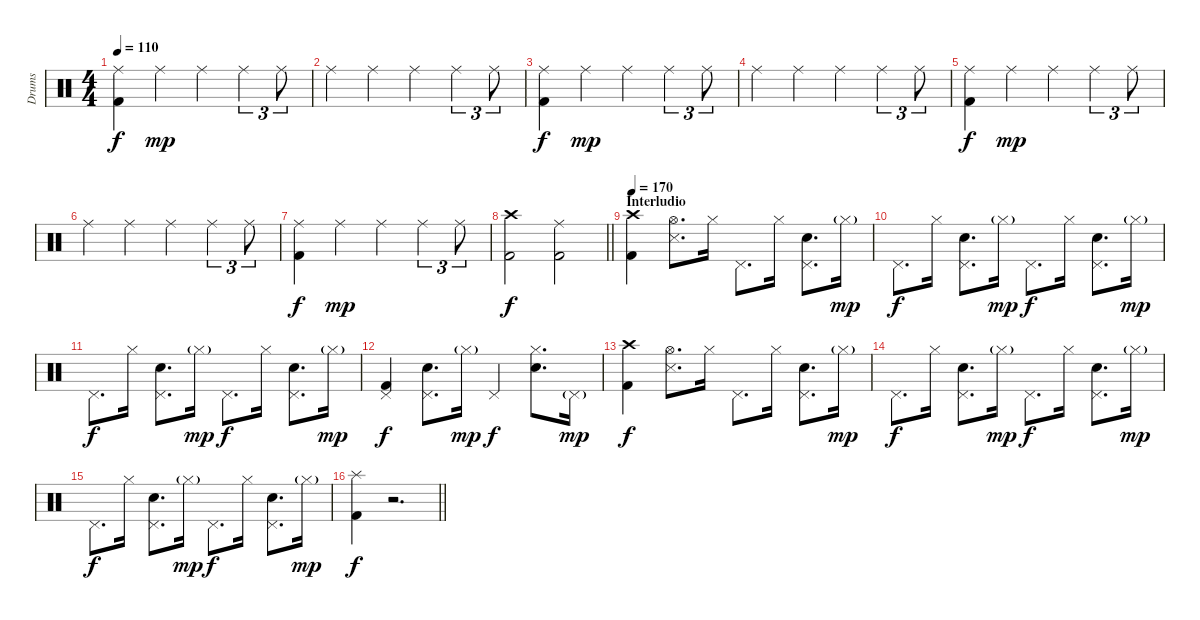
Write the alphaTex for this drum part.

\track ("Drums" "Drums") {instrument percussion}
\staff {score}
\articulation defaults
\ts (4 4)
\tempo 110
\clef neutral
\ks c
("Ride (middle)" "Kick (hit) 2").4{dy f} "Ride (middle)".4{dy mp} "Ride (middle)".4 "Ride (middle)".4{tu (3 2)} "Ride (middle)".8{tu (3 2)} |
"Ride (middle)".4 "Ride (middle)".4 "Ride (middle)".4 "Ride (middle)".4{tu (3 2)} "Ride (middle)".8{tu (3 2)} |
("Ride (middle)" "Kick (hit) 2").4{dy f} "Ride (middle)".4{dy mp} "Ride (middle)".4 "Ride (middle)".4{tu (3 2)} "Ride (middle)".8{tu (3 2)} |
"Ride (middle)".4 "Ride (middle)".4 "Ride (middle)".4 "Ride (middle)".4{tu (3 2)} "Ride (middle)".8{tu (3 2)} |
("Ride (middle)" "Kick (hit) 2").4{dy f} "Ride (middle)".4{dy mp} "Ride (middle)".4 "Ride (middle)".4{tu (3 2)} "Ride (middle)".8{tu (3 2)} |
"Ride (middle)".4 "Ride (middle)".4 "Ride (middle)".4 "Ride (middle)".4{tu (3 2)} "Ride (middle)".8{tu (3 2)} |
("Ride (middle)" "Kick (hit) 2").4{dy f} "Ride (middle)".4{dy mp} "Ride (middle)".4 "Ride (middle)".4{tu (3 2)} "Ride (middle)".8{tu (3 2)} |
\barLineRight lightlight
("Crash high (hit)" "Kick (hit) 2").2{dy f} ("Ride (middle)" "Kick (hit) 2").2 |
\section ("" "Interludio")
\tempo 170
("Crash high (hit)" "Kick (hit) 2").4 ("Hi-Hat (open)" "Snare (side stick) 3").8{d} "Hi-Hat (closed)".16 "Pedal Hi-Hat (hit)".8{d} "Hi-Hat (closed)".16 ("Pedal Hi-Hat (hit)" "Snare (hit) 2").8{d} "Hi-Hat (closed)"{g}.16{dy mp} |
"Pedal Hi-Hat (hit)".8{d dy f} "Hi-Hat (closed)".16 ("Pedal Hi-Hat (hit)" "Snare (hit) 2").8{d} "Hi-Hat (closed)"{g}.16{dy mp} "Pedal Hi-Hat (hit)".8{d dy f} "Hi-Hat (closed)".16 ("Pedal Hi-Hat (hit)" "Snare (hit) 2").8{d} "Hi-Hat (closed)"{g}.16{dy mp} |
"Pedal Hi-Hat (hit)".8{d dy f} "Hi-Hat (closed)".16 ("Pedal Hi-Hat (hit)" "Snare (hit) 2").8{d} "Hi-Hat (closed)"{g}.16{dy mp} "Pedal Hi-Hat (hit)".8{d dy f} "Hi-Hat (closed)".16 ("Pedal Hi-Hat (hit)" "Snare (hit) 2").8{d} "Hi-Hat (closed)"{g}.16{dy mp} |
("Pedal Hi-Hat (hit)" "Kick (hit) 2").4{dy f} ("Pedal Hi-Hat (hit)" "Snare (hit) 2").8{d} "Hi-Hat (closed)"{g}.16{dy mp} "Pedal Hi-Hat (hit)".4{dy f} ("Hi-Hat (closed)" "Snare (hit) 2").8{d} "Pedal Hi-Hat (hit)"{g}.16{dy mp} |
("Crash high (hit)" "Kick (hit) 2").4{dy f} ("Hi-Hat (open)" "Snare (side stick) 3").8{d} "Hi-Hat (closed)".16 "Pedal Hi-Hat (hit)".8{d} "Hi-Hat (closed)".16 ("Pedal Hi-Hat (hit)" "Snare (hit) 2").8{d} "Hi-Hat (closed)"{g}.16{dy mp} |
"Pedal Hi-Hat (hit)".8{d dy f} "Hi-Hat (closed)".16 ("Pedal Hi-Hat (hit)" "Snare (hit) 2").8{d} "Hi-Hat (closed)"{g}.16{dy mp} "Pedal Hi-Hat (hit)".8{d dy f} "Hi-Hat (closed)".16 ("Pedal Hi-Hat (hit)" "Snare (hit) 2").8{d} "Hi-Hat (closed)"{g}.16{dy mp} |
"Pedal Hi-Hat (hit)".8{d dy f} "Hi-Hat (closed)".16 ("Pedal Hi-Hat (hit)" "Snare (hit) 2").8{d} "Hi-Hat (closed)"{g}.16{dy mp} "Pedal Hi-Hat (hit)".8{d dy f} "Hi-Hat (closed)".16 ("Pedal Hi-Hat (hit)" "Snare (hit) 2").8{d} "Hi-Hat (closed)"{g}.16{dy mp} |
\barLineRight lightlight
("Splash (hit)" "Kick (hit) 2").4{dy f} r.2{d}
